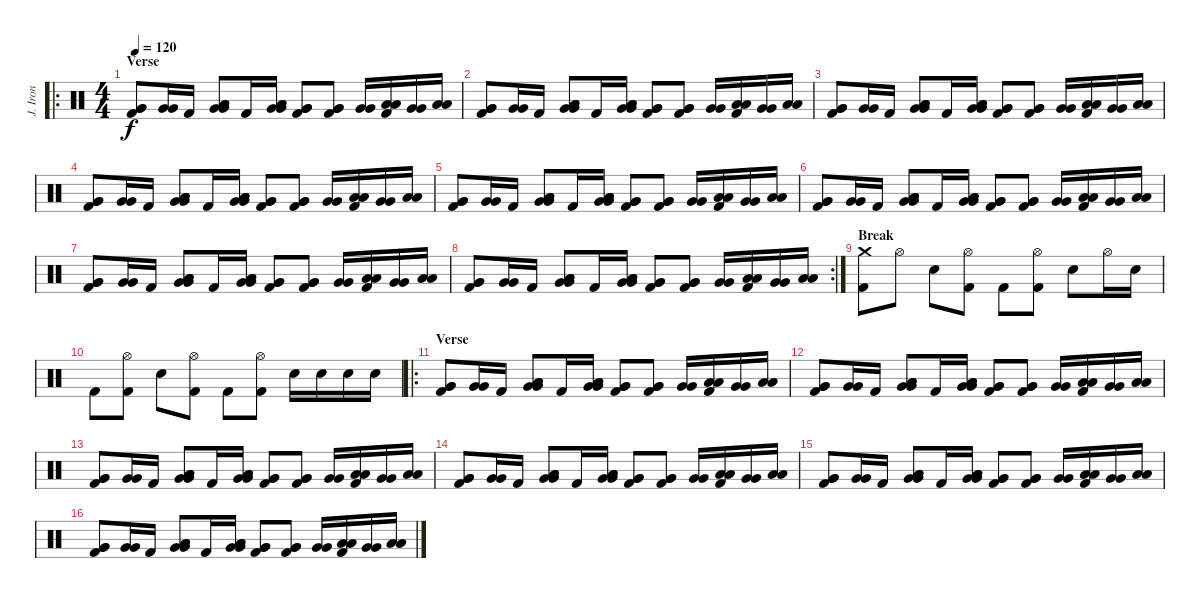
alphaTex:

\track ("J. Iron" "J. Iron") {instrument percussion}
\staff {score}
\articulation defaults
\ro
\ts (4 4)
\section ("" "Verse")
\tempo 120
\clef neutral
\ks c
("Very Low Tom (hit)" "Very Low Tom (hit)" "Kick (hit) 2").8{dy f} ("Very Low Tom (hit)" "Very Low Tom (hit)").16 "Kick (hit) 2".16 ("Low Tom (hit)" "Very Low Tom (hit)" "Very Low Tom (hit)" "Low Tom (hit)").8 "Kick (hit) 2".16 ("Low Tom (hit)" "Very Low Tom (hit)" "Very Low Tom (hit)" "Low Tom (hit)").16 ("Very Low Tom (hit)" "Very Low Tom (hit)" "Kick (hit) 2").8 ("Very Low Tom (hit)" "Very Low Tom (hit)" "Kick (hit) 2").8 ("Very Low Tom (hit)" "Very Low Tom (hit)").16 ("Low Tom (hit)" "Low Tom (hit)" "Kick (hit) 2").16 ("Very Low Tom (hit)" "Very Low Tom (hit)").16 ("Low Tom (hit)" "Low Tom (hit)").16 |
("Very Low Tom (hit)" "Very Low Tom (hit)" "Kick (hit) 2").8 ("Very Low Tom (hit)" "Very Low Tom (hit)").16 "Kick (hit) 2".16 ("Low Tom (hit)" "Very Low Tom (hit)" "Very Low Tom (hit)" "Low Tom (hit)").8 "Kick (hit) 2".16 ("Low Tom (hit)" "Very Low Tom (hit)" "Very Low Tom (hit)" "Low Tom (hit)").16 ("Very Low Tom (hit)" "Very Low Tom (hit)" "Kick (hit) 2").8 ("Very Low Tom (hit)" "Very Low Tom (hit)" "Kick (hit) 2").8 ("Very Low Tom (hit)" "Very Low Tom (hit)").16 ("Low Tom (hit)" "Low Tom (hit)" "Kick (hit) 2").16 ("Very Low Tom (hit)" "Very Low Tom (hit)").16 ("Low Tom (hit)" "Low Tom (hit)").16 |
("Very Low Tom (hit)" "Very Low Tom (hit)" "Kick (hit) 2").8 ("Very Low Tom (hit)" "Very Low Tom (hit)").16 "Kick (hit) 2".16 ("Low Tom (hit)" "Very Low Tom (hit)" "Very Low Tom (hit)" "Low Tom (hit)").8 "Kick (hit) 2".16 ("Low Tom (hit)" "Very Low Tom (hit)" "Very Low Tom (hit)" "Low Tom (hit)").16 ("Very Low Tom (hit)" "Very Low Tom (hit)" "Kick (hit) 2").8 ("Very Low Tom (hit)" "Very Low Tom (hit)" "Kick (hit) 2").8 ("Very Low Tom (hit)" "Very Low Tom (hit)").16 ("Low Tom (hit)" "Low Tom (hit)" "Kick (hit) 2").16 ("Very Low Tom (hit)" "Very Low Tom (hit)").16 ("Low Tom (hit)" "Low Tom (hit)").16 |
("Very Low Tom (hit)" "Very Low Tom (hit)" "Kick (hit) 2").8 ("Very Low Tom (hit)" "Very Low Tom (hit)").16 "Kick (hit) 2".16 ("Low Tom (hit)" "Very Low Tom (hit)" "Very Low Tom (hit)" "Low Tom (hit)").8 "Kick (hit) 2".16 ("Low Tom (hit)" "Very Low Tom (hit)" "Very Low Tom (hit)" "Low Tom (hit)").16 ("Very Low Tom (hit)" "Very Low Tom (hit)" "Kick (hit) 2").8 ("Very Low Tom (hit)" "Very Low Tom (hit)" "Kick (hit) 2").8 ("Very Low Tom (hit)" "Very Low Tom (hit)").16 ("Low Tom (hit)" "Low Tom (hit)" "Kick (hit) 2").16 ("Very Low Tom (hit)" "Very Low Tom (hit)").16 ("Low Tom (hit)" "Low Tom (hit)").16 |
("Very Low Tom (hit)" "Very Low Tom (hit)" "Kick (hit) 2").8 ("Very Low Tom (hit)" "Very Low Tom (hit)").16 "Kick (hit) 2".16 ("Low Tom (hit)" "Very Low Tom (hit)" "Very Low Tom (hit)" "Low Tom (hit)").8 "Kick (hit) 2".16 ("Low Tom (hit)" "Very Low Tom (hit)" "Very Low Tom (hit)" "Low Tom (hit)").16 ("Very Low Tom (hit)" "Very Low Tom (hit)" "Kick (hit) 2").8 ("Very Low Tom (hit)" "Very Low Tom (hit)" "Kick (hit) 2").8 ("Very Low Tom (hit)" "Very Low Tom (hit)").16 ("Low Tom (hit)" "Low Tom (hit)" "Kick (hit) 2").16 ("Very Low Tom (hit)" "Very Low Tom (hit)").16 ("Low Tom (hit)" "Low Tom (hit)").16 |
("Very Low Tom (hit)" "Very Low Tom (hit)" "Kick (hit) 2").8 ("Very Low Tom (hit)" "Very Low Tom (hit)").16 "Kick (hit) 2".16 ("Low Tom (hit)" "Very Low Tom (hit)" "Very Low Tom (hit)" "Low Tom (hit)").8 "Kick (hit) 2".16 ("Low Tom (hit)" "Very Low Tom (hit)" "Very Low Tom (hit)" "Low Tom (hit)").16 ("Very Low Tom (hit)" "Very Low Tom (hit)" "Kick (hit) 2").8 ("Very Low Tom (hit)" "Very Low Tom (hit)" "Kick (hit) 2").8 ("Very Low Tom (hit)" "Very Low Tom (hit)").16 ("Low Tom (hit)" "Low Tom (hit)" "Kick (hit) 2").16 ("Very Low Tom (hit)" "Very Low Tom (hit)").16 ("Low Tom (hit)" "Low Tom (hit)").16 |
("Very Low Tom (hit)" "Very Low Tom (hit)" "Kick (hit) 2").8 ("Very Low Tom (hit)" "Very Low Tom (hit)").16 "Kick (hit) 2".16 ("Low Tom (hit)" "Very Low Tom (hit)" "Very Low Tom (hit)" "Low Tom (hit)").8 "Kick (hit) 2".16 ("Low Tom (hit)" "Very Low Tom (hit)" "Very Low Tom (hit)" "Low Tom (hit)").16 ("Very Low Tom (hit)" "Very Low Tom (hit)" "Kick (hit) 2").8 ("Very Low Tom (hit)" "Very Low Tom (hit)" "Kick (hit) 2").8 ("Very Low Tom (hit)" "Very Low Tom (hit)").16 ("Low Tom (hit)" "Low Tom (hit)" "Kick (hit) 2").16 ("Very Low Tom (hit)" "Very Low Tom (hit)").16 ("Low Tom (hit)" "Low Tom (hit)").16 |
\rc 2
("Very Low Tom (hit)" "Very Low Tom (hit)" "Kick (hit) 2").8 ("Very Low Tom (hit)" "Very Low Tom (hit)").16 "Kick (hit) 2".16 ("Low Tom (hit)" "Very Low Tom (hit)" "Very Low Tom (hit)" "Low Tom (hit)").8 "Kick (hit) 2".16 ("Low Tom (hit)" "Very Low Tom (hit)" "Very Low Tom (hit)" "Low Tom (hit)").16 ("Very Low Tom (hit)" "Very Low Tom (hit)" "Kick (hit) 2").8 ("Very Low Tom (hit)" "Very Low Tom (hit)" "Kick (hit) 2").8 ("Very Low Tom (hit)" "Very Low Tom (hit)").16 ("Low Tom (hit)" "Low Tom (hit)" "Kick (hit) 2").16 ("Very Low Tom (hit)" "Very Low Tom (hit)").16 ("Low Tom (hit)" "Low Tom (hit)").16 |
\section ("" "Break")
("Crash medium (hit)" "Kick (hit) 2").8 "Hi-Hat (open)".8 "Snare (hit) 2".8 ("Hi-Hat (open)" "Kick (hit) 2").8 "Kick (hit) 2".8 ("Hi-Hat (open)" "Kick (hit) 2").8 "Snare (hit) 2".8 "Hi-Hat (open)".16 "Snare (hit) 2".16 |
"Kick (hit) 2".8 ("Hi-Hat (open)" "Kick (hit) 2").8 "Snare (hit) 2".8 ("Hi-Hat (open)" "Kick (hit) 2").8 "Kick (hit) 2".8 ("Hi-Hat (open)" "Kick (hit) 2").8 "Snare (hit) 2".16 "Snare (hit) 2".16 "Snare (hit) 2".16 "Snare (hit) 2".16 |
\ro
\section ("" "Verse")
("Very Low Tom (hit)" "Very Low Tom (hit)" "Kick (hit) 2").8 ("Very Low Tom (hit)" "Very Low Tom (hit)").16 "Kick (hit) 2".16 ("Low Tom (hit)" "Very Low Tom (hit)" "Very Low Tom (hit)" "Low Tom (hit)").8 "Kick (hit) 2".16 ("Low Tom (hit)" "Very Low Tom (hit)" "Very Low Tom (hit)" "Low Tom (hit)").16 ("Very Low Tom (hit)" "Very Low Tom (hit)" "Kick (hit) 2").8 ("Very Low Tom (hit)" "Very Low Tom (hit)" "Kick (hit) 2").8 ("Very Low Tom (hit)" "Very Low Tom (hit)").16 ("Low Tom (hit)" "Low Tom (hit)" "Kick (hit) 2").16 ("Very Low Tom (hit)" "Very Low Tom (hit)").16 ("Low Tom (hit)" "Low Tom (hit)").16 |
("Very Low Tom (hit)" "Very Low Tom (hit)" "Kick (hit) 2").8 ("Very Low Tom (hit)" "Very Low Tom (hit)").16 "Kick (hit) 2".16 ("Low Tom (hit)" "Very Low Tom (hit)" "Very Low Tom (hit)" "Low Tom (hit)").8 "Kick (hit) 2".16 ("Low Tom (hit)" "Very Low Tom (hit)" "Very Low Tom (hit)" "Low Tom (hit)").16 ("Very Low Tom (hit)" "Very Low Tom (hit)" "Kick (hit) 2").8 ("Very Low Tom (hit)" "Very Low Tom (hit)" "Kick (hit) 2").8 ("Very Low Tom (hit)" "Very Low Tom (hit)").16 ("Low Tom (hit)" "Low Tom (hit)" "Kick (hit) 2").16 ("Very Low Tom (hit)" "Very Low Tom (hit)").16 ("Low Tom (hit)" "Low Tom (hit)").16 |
("Very Low Tom (hit)" "Very Low Tom (hit)" "Kick (hit) 2").8 ("Very Low Tom (hit)" "Very Low Tom (hit)").16 "Kick (hit) 2".16 ("Low Tom (hit)" "Very Low Tom (hit)" "Very Low Tom (hit)" "Low Tom (hit)").8 "Kick (hit) 2".16 ("Low Tom (hit)" "Very Low Tom (hit)" "Very Low Tom (hit)" "Low Tom (hit)").16 ("Very Low Tom (hit)" "Very Low Tom (hit)" "Kick (hit) 2").8 ("Very Low Tom (hit)" "Very Low Tom (hit)" "Kick (hit) 2").8 ("Very Low Tom (hit)" "Very Low Tom (hit)").16 ("Low Tom (hit)" "Low Tom (hit)" "Kick (hit) 2").16 ("Very Low Tom (hit)" "Very Low Tom (hit)").16 ("Low Tom (hit)" "Low Tom (hit)").16 |
("Very Low Tom (hit)" "Very Low Tom (hit)" "Kick (hit) 2").8 ("Very Low Tom (hit)" "Very Low Tom (hit)").16 "Kick (hit) 2".16 ("Low Tom (hit)" "Very Low Tom (hit)" "Very Low Tom (hit)" "Low Tom (hit)").8 "Kick (hit) 2".16 ("Low Tom (hit)" "Very Low Tom (hit)" "Very Low Tom (hit)" "Low Tom (hit)").16 ("Very Low Tom (hit)" "Very Low Tom (hit)" "Kick (hit) 2").8 ("Very Low Tom (hit)" "Very Low Tom (hit)" "Kick (hit) 2").8 ("Very Low Tom (hit)" "Very Low Tom (hit)").16 ("Low Tom (hit)" "Low Tom (hit)" "Kick (hit) 2").16 ("Very Low Tom (hit)" "Very Low Tom (hit)").16 ("Low Tom (hit)" "Low Tom (hit)").16 |
("Very Low Tom (hit)" "Very Low Tom (hit)" "Kick (hit) 2").8 ("Very Low Tom (hit)" "Very Low Tom (hit)").16 "Kick (hit) 2".16 ("Low Tom (hit)" "Very Low Tom (hit)" "Very Low Tom (hit)" "Low Tom (hit)").8 "Kick (hit) 2".16 ("Low Tom (hit)" "Very Low Tom (hit)" "Very Low Tom (hit)" "Low Tom (hit)").16 ("Very Low Tom (hit)" "Very Low Tom (hit)" "Kick (hit) 2").8 ("Very Low Tom (hit)" "Very Low Tom (hit)" "Kick (hit) 2").8 ("Very Low Tom (hit)" "Very Low Tom (hit)").16 ("Low Tom (hit)" "Low Tom (hit)" "Kick (hit) 2").16 ("Very Low Tom (hit)" "Very Low Tom (hit)").16 ("Low Tom (hit)" "Low Tom (hit)").16 |
("Very Low Tom (hit)" "Very Low Tom (hit)" "Kick (hit) 2").8 ("Very Low Tom (hit)" "Very Low Tom (hit)").16 "Kick (hit) 2".16 ("Low Tom (hit)" "Very Low Tom (hit)" "Very Low Tom (hit)" "Low Tom (hit)").8 "Kick (hit) 2".16 ("Low Tom (hit)" "Very Low Tom (hit)" "Very Low Tom (hit)" "Low Tom (hit)").16 ("Very Low Tom (hit)" "Very Low Tom (hit)" "Kick (hit) 2").8 ("Very Low Tom (hit)" "Very Low Tom (hit)" "Kick (hit) 2").8 ("Very Low Tom (hit)" "Very Low Tom (hit)").16 ("Low Tom (hit)" "Low Tom (hit)" "Kick (hit) 2").16 ("Very Low Tom (hit)" "Very Low Tom (hit)").16 ("Low Tom (hit)" "Low Tom (hit)").16
